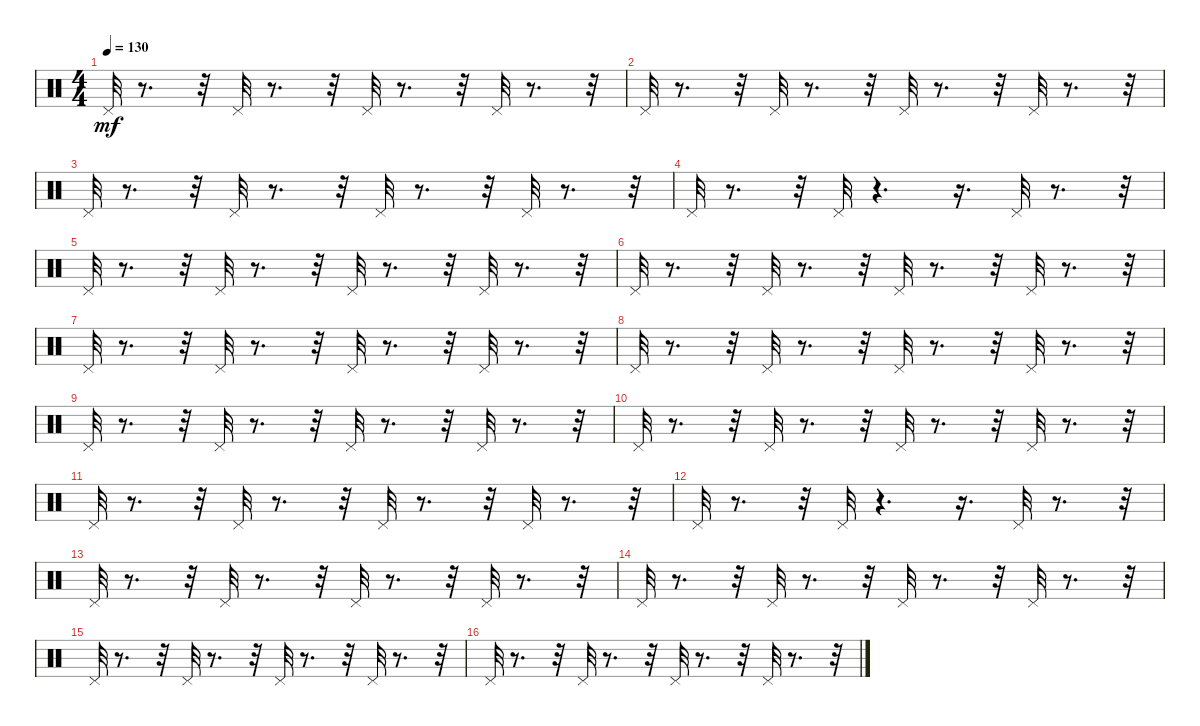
\track "" {instrument percussion}
\staff {score}
\articulation defaults
\ts (4 4)
\tempo 130
\clef neutral
\ks c "Pedal Hi-Hat (hit)".32{dy mf}
r.8{d} r.32 "Pedal Hi-Hat (hit)".32 r.8{d} r.32 "Pedal Hi-Hat (hit)".32 r.8{d} r.32 "Pedal Hi-Hat (hit)".32 r.8{d} r.32 |
"Pedal Hi-Hat (hit)".32 r.8{d} r.32 "Pedal Hi-Hat (hit)".32 r.8{d} r.32 "Pedal Hi-Hat (hit)".32 r.8{d} r.32 "Pedal Hi-Hat (hit)".32 r.8{d} r.32 |
"Pedal Hi-Hat (hit)".32 r.8{d} r.32 "Pedal Hi-Hat (hit)".32 r.8{d} r.32 "Pedal Hi-Hat (hit)".32 r.8{d} r.32 "Pedal Hi-Hat (hit)".32 r.8{d} r.32 |
"Pedal Hi-Hat (hit)".32 r.8{d} r.32 "Pedal Hi-Hat (hit)".32 r.4{d} r.16{d} "Pedal Hi-Hat (hit)".32 r.8{d} r.32 |
"Pedal Hi-Hat (hit)".32 r.8{d} r.32 "Pedal Hi-Hat (hit)".32 r.8{d} r.32 "Pedal Hi-Hat (hit)".32 r.8{d} r.32 "Pedal Hi-Hat (hit)".32 r.8{d} r.32 |
"Pedal Hi-Hat (hit)".32 r.8{d} r.32 "Pedal Hi-Hat (hit)".32 r.8{d} r.32 "Pedal Hi-Hat (hit)".32 r.8{d} r.32 "Pedal Hi-Hat (hit)".32 r.8{d} r.32 |
"Pedal Hi-Hat (hit)".32 r.8{d} r.32 "Pedal Hi-Hat (hit)".32 r.8{d} r.32 "Pedal Hi-Hat (hit)".32 r.8{d} r.32 "Pedal Hi-Hat (hit)".32 r.8{d} r.32 |
"Pedal Hi-Hat (hit)".32 r.8{d} r.32 "Pedal Hi-Hat (hit)".32 r.8{d} r.32 "Pedal Hi-Hat (hit)".32 r.8{d} r.32 "Pedal Hi-Hat (hit)".32 r.8{d} r.32 |
"Pedal Hi-Hat (hit)".32 r.8{d} r.32 "Pedal Hi-Hat (hit)".32 r.8{d} r.32 "Pedal Hi-Hat (hit)".32 r.8{d} r.32 "Pedal Hi-Hat (hit)".32 r.8{d} r.32 |
"Pedal Hi-Hat (hit)".32 r.8{d} r.32 "Pedal Hi-Hat (hit)".32 r.8{d} r.32 "Pedal Hi-Hat (hit)".32 r.8{d} r.32 "Pedal Hi-Hat (hit)".32 r.8{d} r.32 |
"Pedal Hi-Hat (hit)".32 r.8{d} r.32 "Pedal Hi-Hat (hit)".32 r.8{d} r.32 "Pedal Hi-Hat (hit)".32 r.8{d} r.32 "Pedal Hi-Hat (hit)".32 r.8{d} r.32 |
"Pedal Hi-Hat (hit)".32 r.8{d} r.32 "Pedal Hi-Hat (hit)".32 r.4{d} r.16{d} "Pedal Hi-Hat (hit)".32 r.8{d} r.32 |
"Pedal Hi-Hat (hit)".32 r.8{d} r.32 "Pedal Hi-Hat (hit)".32 r.8{d} r.32 "Pedal Hi-Hat (hit)".32 r.8{d} r.32 "Pedal Hi-Hat (hit)".32 r.8{d} r.32 |
"Pedal Hi-Hat (hit)".32 r.8{d} r.32 "Pedal Hi-Hat (hit)".32 r.8{d} r.32 "Pedal Hi-Hat (hit)".32 r.8{d} r.32 "Pedal Hi-Hat (hit)".32 r.8{d} r.32 |
"Pedal Hi-Hat (hit)".32 r.8{d} r.32 "Pedal Hi-Hat (hit)".32 r.8{d} r.32 "Pedal Hi-Hat (hit)".32 r.8{d} r.32 "Pedal Hi-Hat (hit)".32 r.8{d} r.32 |
"Pedal Hi-Hat (hit)".32 r.8{d} r.32 "Pedal Hi-Hat (hit)".32 r.8{d} r.32 "Pedal Hi-Hat (hit)".32 r.8{d} r.32 "Pedal Hi-Hat (hit)".32 r.8{d} r.32
